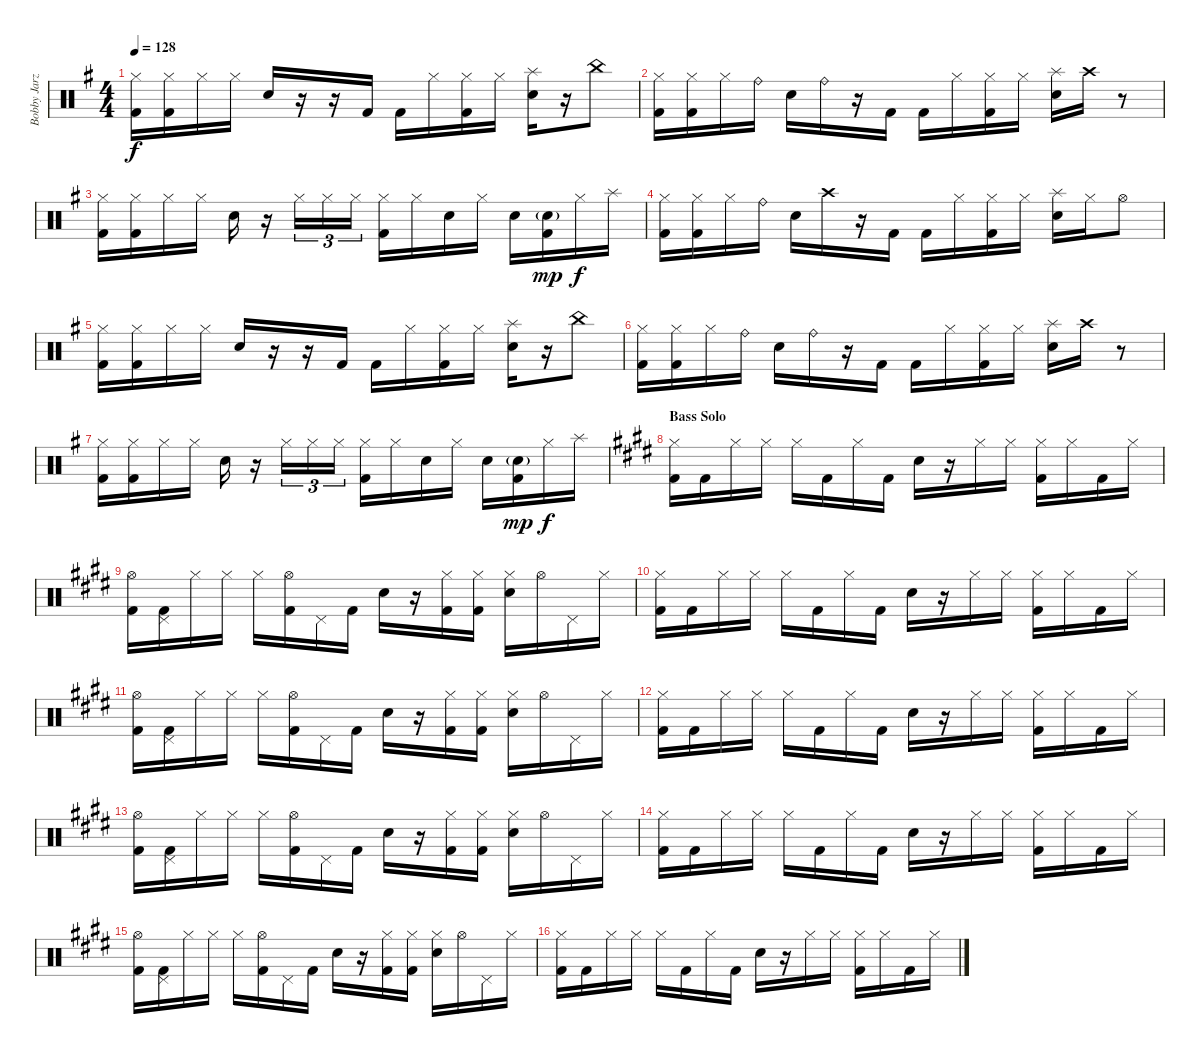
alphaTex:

\track ("Bobby Jarzombek" "Bobby Jarz") {instrument percussion}
\staff {score}
\articulation defaults
\ts (4 4)
\tempo 128
\clef neutral
\ks eminor
("Hi-Hat (closed)" "Kick (hit) 2").16{dy f} ("Hi-Hat (closed)" "Kick (hit) 2").16 "Hi-Hat (closed)".16 "Hi-Hat (closed)".16 "Electric Snare (hit)".16 r.16 r.16 "Kick (hit) 2".16 "Kick (hit) 2".16 "Hi-Hat (closed)".16 ("Hi-Hat (closed)" "Kick (hit) 2").16 "Hi-Hat (closed)".16 ("Splash (hit)" "Electric Snare (hit)").16 r.16 "China (hit)".8 |
("Hi-Hat (closed)" "Kick (hit) 2").16 ("Hi-Hat (closed)" "Kick (hit) 2").16 "Hi-Hat (closed)".16 "Ride (bell)".16 "Electric Snare (hit)".16 "Ride (bell)".16 r.16 "Kick (hit) 2".16 "Kick (hit) 2".16 "Hi-Hat (closed)".16 ("Hi-Hat (closed)" "Kick (hit) 2").16 "Hi-Hat (closed)".16 ("Splash (hit)" "Electric Snare (hit)").16 "Crash high (hit)".16 r.8 |
("Hi-Hat (closed)" "Kick (hit) 2").16 ("Hi-Hat (closed)" "Kick (hit) 2").16 "Hi-Hat (closed)".16 "Hi-Hat (closed)".16 "Electric Snare (hit)".16 r.16 "Hi-Hat (closed)".16{tu (3 2)} "Hi-Hat (closed)".16{tu (3 2)} "Hi-Hat (closed)".16{tu (3 2)} ("Hi-Hat (closed)" "Kick (hit) 2").16 "Hi-Hat (closed)".16 "Electric Snare (hit)".16 "Hi-Hat (closed)".16 "Electric Snare (hit)".16 ("Electric Snare (hit)"{g} "Kick (hit) 2").16{dy mp} "Hi-Hat (closed)".16{dy f} "Splash (hit)".16 |
("Hi-Hat (closed)" "Kick (hit) 2").16 ("Hi-Hat (closed)" "Kick (hit) 2").16 "Hi-Hat (closed)".16 "Ride (bell)".16 "Electric Snare (hit)".16 "Crash high (hit)".16 r.16 "Kick (hit) 2".16 "Kick (hit) 2".16 "Hi-Hat (closed)".16 ("Hi-Hat (closed)" "Kick (hit) 2").16 "Hi-Hat (closed)".16 ("Splash (hit)" "Electric Snare (hit)").16 "Hi-Hat (closed)".16 "Hi-Hat (open)".8 |
("Hi-Hat (closed)" "Kick (hit) 2").16 ("Hi-Hat (closed)" "Kick (hit) 2").16 "Hi-Hat (closed)".16 "Hi-Hat (closed)".16 "Electric Snare (hit)".16 r.16 r.16 "Kick (hit) 2".16 "Kick (hit) 2".16 "Hi-Hat (closed)".16 ("Hi-Hat (closed)" "Kick (hit) 2").16 "Hi-Hat (closed)".16 ("Splash (hit)" "Electric Snare (hit)").16 r.16 "China (hit)".8 |
("Hi-Hat (closed)" "Kick (hit) 2").16 ("Hi-Hat (closed)" "Kick (hit) 2").16 "Hi-Hat (closed)".16 "Ride (bell)".16 "Electric Snare (hit)".16 "Ride (bell)".16 r.16 "Kick (hit) 2".16 "Kick (hit) 2".16 "Hi-Hat (closed)".16 ("Hi-Hat (closed)" "Kick (hit) 2").16 "Hi-Hat (closed)".16 ("Splash (hit)" "Electric Snare (hit)").16 "Crash high (hit)".16 r.8 |
("Hi-Hat (closed)" "Kick (hit) 2").16 ("Hi-Hat (closed)" "Kick (hit) 2").16 "Hi-Hat (closed)".16 "Hi-Hat (closed)".16 "Electric Snare (hit)".16 r.16 "Hi-Hat (closed)".16{tu (3 2)} "Hi-Hat (closed)".16{tu (3 2)} "Hi-Hat (closed)".16{tu (3 2)} ("Hi-Hat (closed)" "Kick (hit) 2").16 "Hi-Hat (closed)".16 "Electric Snare (hit)".16 "Hi-Hat (closed)".16 "Electric Snare (hit)".16 ("Electric Snare (hit)"{g} "Kick (hit) 2").16{dy mp} "Hi-Hat (closed)".16{dy f} "Splash (hit)".16 |
\section ("" "Bass Solo")
\ks c#minor
("Hi-Hat (closed)" "Kick (hit) 2").16 "Kick (hit) 2".16 "Hi-Hat (closed)".16 "Hi-Hat (closed)".16 "Hi-Hat (closed)".16 "Kick (hit) 2".16 "Hi-Hat (closed)".16 "Kick (hit) 2".16 "Electric Snare (hit)".16 r.16 "Hi-Hat (closed)".16 "Hi-Hat (closed)".16 ("Hi-Hat (closed)" "Kick (hit) 2").16 "Hi-Hat (closed)".16 "Kick (hit) 2".16 "Hi-Hat (closed)".16 |
("Hi-Hat (open)" "Kick (hit) 2").16 ("Pedal Hi-Hat (hit)" "Kick (hit) 2").16 "Hi-Hat (closed)".16 "Hi-Hat (closed)".16 "Hi-Hat (closed)".16 ("Hi-Hat (open)" "Kick (hit) 2").16 "Pedal Hi-Hat (hit)".16 "Kick (hit) 2".16 "Electric Snare (hit)".16 r.16 ("Hi-Hat (closed)" "Kick (hit) 2").16 ("Hi-Hat (closed)" "Kick (hit) 2").16 ("Hi-Hat (closed)" "Electric Snare (hit)").16 "Hi-Hat (open)".16 "Pedal Hi-Hat (hit)".16 "Hi-Hat (closed)".16 |
("Hi-Hat (closed)" "Kick (hit) 2").16 "Kick (hit) 2".16 "Hi-Hat (closed)".16 "Hi-Hat (closed)".16 "Hi-Hat (closed)".16 "Kick (hit) 2".16 "Hi-Hat (closed)".16 "Kick (hit) 2".16 "Electric Snare (hit)".16 r.16 "Hi-Hat (closed)".16 "Hi-Hat (closed)".16 ("Hi-Hat (closed)" "Kick (hit) 2").16 "Hi-Hat (closed)".16 "Kick (hit) 2".16 "Hi-Hat (closed)".16 |
("Hi-Hat (open)" "Kick (hit) 2").16 ("Pedal Hi-Hat (hit)" "Kick (hit) 2").16 "Hi-Hat (closed)".16 "Hi-Hat (closed)".16 "Hi-Hat (closed)".16 ("Hi-Hat (open)" "Kick (hit) 2").16 "Pedal Hi-Hat (hit)".16 "Kick (hit) 2".16 "Electric Snare (hit)".16 r.16 ("Hi-Hat (closed)" "Kick (hit) 2").16 ("Hi-Hat (closed)" "Kick (hit) 2").16 ("Hi-Hat (closed)" "Electric Snare (hit)").16 "Hi-Hat (open)".16 "Pedal Hi-Hat (hit)".16 "Hi-Hat (closed)".16 |
("Hi-Hat (closed)" "Kick (hit) 2").16 "Kick (hit) 2".16 "Hi-Hat (closed)".16 "Hi-Hat (closed)".16 "Hi-Hat (closed)".16 "Kick (hit) 2".16 "Hi-Hat (closed)".16 "Kick (hit) 2".16 "Electric Snare (hit)".16 r.16 "Hi-Hat (closed)".16 "Hi-Hat (closed)".16 ("Hi-Hat (closed)" "Kick (hit) 2").16 "Hi-Hat (closed)".16 "Kick (hit) 2".16 "Hi-Hat (closed)".16 |
("Hi-Hat (open)" "Kick (hit) 2").16 ("Pedal Hi-Hat (hit)" "Kick (hit) 2").16 "Hi-Hat (closed)".16 "Hi-Hat (closed)".16 "Hi-Hat (closed)".16 ("Hi-Hat (open)" "Kick (hit) 2").16 "Pedal Hi-Hat (hit)".16 "Kick (hit) 2".16 "Electric Snare (hit)".16 r.16 ("Hi-Hat (closed)" "Kick (hit) 2").16 ("Hi-Hat (closed)" "Kick (hit) 2").16 ("Hi-Hat (closed)" "Electric Snare (hit)").16 "Hi-Hat (open)".16 "Pedal Hi-Hat (hit)".16 "Hi-Hat (closed)".16 |
("Hi-Hat (closed)" "Kick (hit) 2").16 "Kick (hit) 2".16 "Hi-Hat (closed)".16 "Hi-Hat (closed)".16 "Hi-Hat (closed)".16 "Kick (hit) 2".16 "Hi-Hat (closed)".16 "Kick (hit) 2".16 "Electric Snare (hit)".16 r.16 "Hi-Hat (closed)".16 "Hi-Hat (closed)".16 ("Hi-Hat (closed)" "Kick (hit) 2").16 "Hi-Hat (closed)".16 "Kick (hit) 2".16 "Hi-Hat (closed)".16 |
("Hi-Hat (open)" "Kick (hit) 2").16 ("Pedal Hi-Hat (hit)" "Kick (hit) 2").16 "Hi-Hat (closed)".16 "Hi-Hat (closed)".16 "Hi-Hat (closed)".16 ("Hi-Hat (open)" "Kick (hit) 2").16 "Pedal Hi-Hat (hit)".16 "Kick (hit) 2".16 "Electric Snare (hit)".16 r.16 ("Hi-Hat (closed)" "Kick (hit) 2").16 ("Hi-Hat (closed)" "Kick (hit) 2").16 ("Hi-Hat (closed)" "Electric Snare (hit)").16 "Hi-Hat (open)".16 "Pedal Hi-Hat (hit)".16 "Hi-Hat (closed)".16 |
("Hi-Hat (closed)" "Kick (hit) 2").16 "Kick (hit) 2".16 "Hi-Hat (closed)".16 "Hi-Hat (closed)".16 "Hi-Hat (closed)".16 "Kick (hit) 2".16 "Hi-Hat (closed)".16 "Kick (hit) 2".16 "Electric Snare (hit)".16 r.16 "Hi-Hat (closed)".16 "Hi-Hat (closed)".16 ("Hi-Hat (closed)" "Kick (hit) 2").16 "Hi-Hat (closed)".16 "Kick (hit) 2".16 "Hi-Hat (closed)".16
